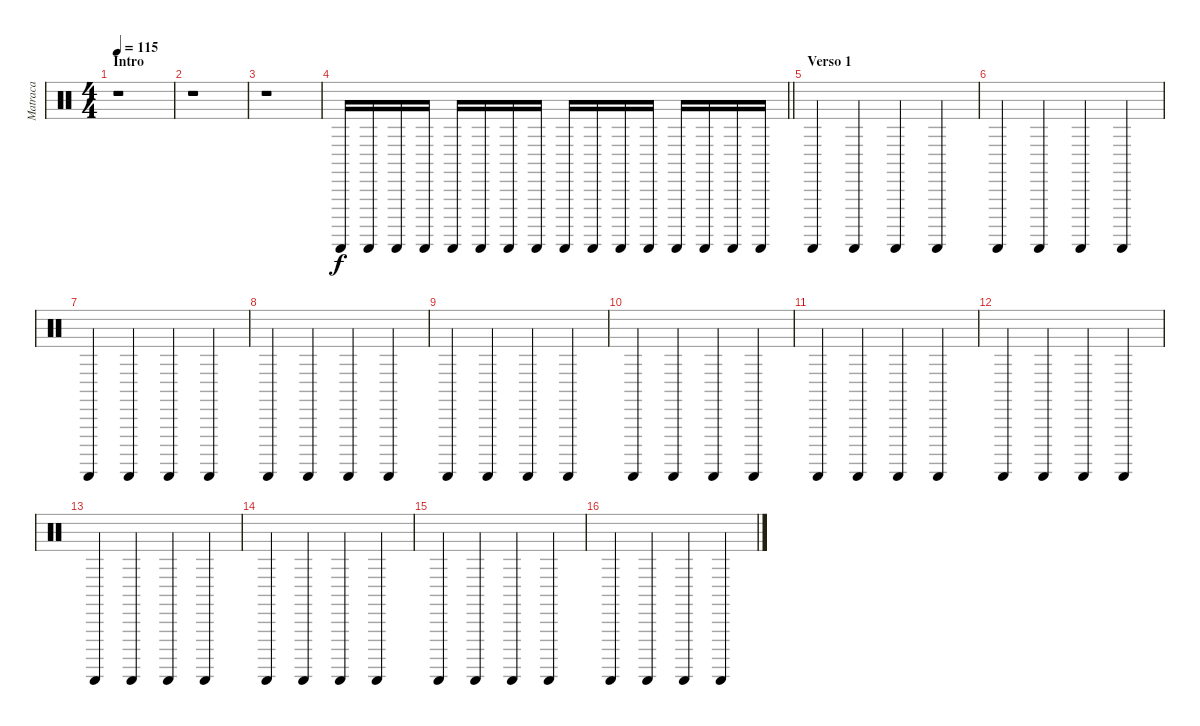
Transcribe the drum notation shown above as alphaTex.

\track ("Matraca" "Matraca") {instrument percussion}
\staff {score}
\articulation defaults
\ts (4 4)
\section ("" "Intro")
\tempo 115
\clef neutral
\ks c
r.1{dy f} |
r.1 |
r.1 |
\barLineRight lightlight "Guiro (scrap-return)".16 "Guiro (scrap-return)".16 "Guiro (scrap-return)".16 "Guiro (scrap-return)".16 "Guiro (scrap-return)".16 "Guiro (scrap-return)".16 "Guiro (scrap-return)".16 "Guiro (scrap-return)".16 "Guiro (scrap-return)".16 "Guiro (scrap-return)".16 "Guiro (scrap-return)".16 "Guiro (scrap-return)".16 "Guiro (scrap-return)".16 "Guiro (scrap-return)".16 "Guiro (scrap-return)".16 "Guiro (scrap-return)".16
|
\section ("" "Verso 1")
"Guiro (scrap-return)".4 "Guiro (scrap-return)".4 "Guiro (scrap-return)".4 "Guiro (scrap-return)".4 |
"Guiro (scrap-return)".4 "Guiro (scrap-return)".4 "Guiro (scrap-return)".4 "Guiro (scrap-return)".4 |
"Guiro (scrap-return)".4 "Guiro (scrap-return)".4 "Guiro (scrap-return)".4 "Guiro (scrap-return)".4 |
"Guiro (scrap-return)".4 "Guiro (scrap-return)".4 "Guiro (scrap-return)".4 "Guiro (scrap-return)".4 |
"Guiro (scrap-return)".4 "Guiro (scrap-return)".4 "Guiro (scrap-return)".4 "Guiro (scrap-return)".4 |
"Guiro (scrap-return)".4 "Guiro (scrap-return)".4 "Guiro (scrap-return)".4 "Guiro (scrap-return)".4 |
"Guiro (scrap-return)".4 "Guiro (scrap-return)".4 "Guiro (scrap-return)".4 "Guiro (scrap-return)".4 |
"Guiro (scrap-return)".4 "Guiro (scrap-return)".4 "Guiro (scrap-return)".4 "Guiro (scrap-return)".4 |
"Guiro (scrap-return)".4 "Guiro (scrap-return)".4 "Guiro (scrap-return)".4 "Guiro (scrap-return)".4 |
"Guiro (scrap-return)".4 "Guiro (scrap-return)".4 "Guiro (scrap-return)".4 "Guiro (scrap-return)".4 |
"Guiro (scrap-return)".4 "Guiro (scrap-return)".4 "Guiro (scrap-return)".4 "Guiro (scrap-return)".4 |
"Guiro (scrap-return)".4 "Guiro (scrap-return)".4 "Guiro (scrap-return)".4 "Guiro (scrap-return)".4
